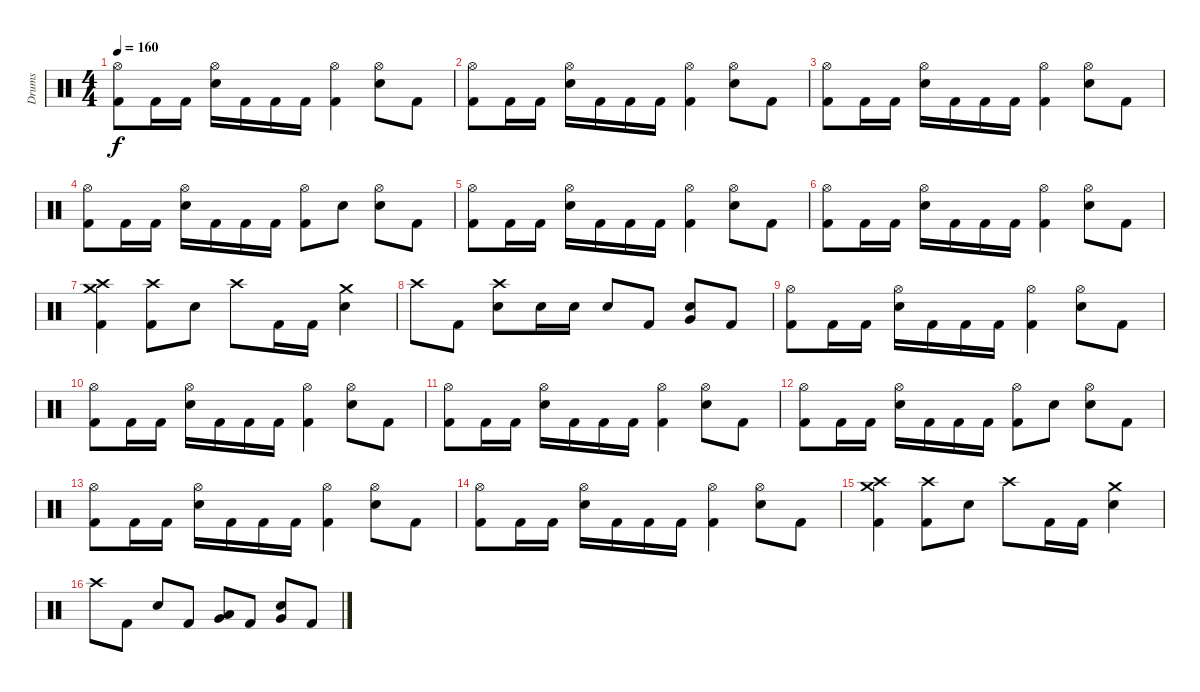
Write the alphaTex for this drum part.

\track ("Drums" "Drums") {instrument percussion}
\staff {score}
\articulation defaults
\ts (4 4)
\tempo 160
\clef neutral
\ks c
("Hi-Hat (open)" "Kick (hit) 2").8{dy f} "Kick (hit) 2".16 "Kick (hit) 2".16 ("Hi-Hat (open)" "Electric Snare (hit)").16 "Kick (hit) 2".16 "Kick (hit) 2".16 "Kick (hit) 2".16 ("Hi-Hat (open)" "Kick (hit) 2").4 ("Hi-Hat (open)" "Electric Snare (hit)").8 "Kick (hit) 2".8 |
("Hi-Hat (open)" "Kick (hit) 2").8 "Kick (hit) 2".16 "Kick (hit) 2".16 ("Hi-Hat (open)" "Electric Snare (hit)").16 "Kick (hit) 2".16 "Kick (hit) 2".16 "Kick (hit) 2".16 ("Hi-Hat (open)" "Kick (hit) 2").4 ("Hi-Hat (open)" "Electric Snare (hit)").8 "Kick (hit) 2".8 |
("Hi-Hat (open)" "Kick (hit) 2").8 "Kick (hit) 2".16 "Kick (hit) 2".16 ("Hi-Hat (open)" "Electric Snare (hit)").16 "Kick (hit) 2".16 "Kick (hit) 2".16 "Kick (hit) 2".16 ("Hi-Hat (open)" "Kick (hit) 2").4 ("Hi-Hat (open)" "Electric Snare (hit)").8 "Kick (hit) 2".8 |
("Hi-Hat (open)" "Kick (hit) 2").8 "Kick (hit) 2".16 "Kick (hit) 2".16 ("Hi-Hat (open)" "Electric Snare (hit)").16 "Kick (hit) 2".16 "Kick (hit) 2".16 "Kick (hit) 2".16 ("Hi-Hat (open)" "Kick (hit) 2").8 "Electric Snare (hit)".8 ("Hi-Hat (open)" "Electric Snare (hit)").8 "Kick (hit) 2".8 |
("Hi-Hat (open)" "Kick (hit) 2").8 "Kick (hit) 2".16 "Kick (hit) 2".16 ("Hi-Hat (open)" "Electric Snare (hit)").16 "Kick (hit) 2".16 "Kick (hit) 2".16 "Kick (hit) 2".16 ("Hi-Hat (open)" "Kick (hit) 2").4 ("Hi-Hat (open)" "Electric Snare (hit)").8 "Kick (hit) 2".8 |
("Hi-Hat (open)" "Kick (hit) 2").8 "Kick (hit) 2".16 "Kick (hit) 2".16 ("Hi-Hat (open)" "Electric Snare (hit)").16 "Kick (hit) 2".16 "Kick (hit) 2".16 "Kick (hit) 2".16 ("Hi-Hat (open)" "Kick (hit) 2").4 ("Hi-Hat (open)" "Electric Snare (hit)").8 "Kick (hit) 2".8 |
("Crash high (hit)" "Crash medium (hit)" "Kick (hit) 2").4 ("Crash high (hit)" "Kick (hit) 2").8 "Electric Snare (hit)".8 "Crash high (hit)".8 "Kick (hit) 2".16 "Kick (hit) 2".16 ("Crash medium (hit)" "Electric Snare (hit)").4 |
"Crash high (hit)".8 "Kick (hit) 2".8 ("Crash high (hit)" "Electric Snare (hit)").8 "Electric Snare (hit)".16 "Electric Snare (hit)".16 "Electric Snare (hit)".8 "Kick (hit) 2".8 ("Very Low Tom (hit)" "Electric Snare (hit)").8 "Kick (hit) 2".8 |
("Hi-Hat (open)" "Kick (hit) 2").8 "Kick (hit) 2".16 "Kick (hit) 2".16 ("Hi-Hat (open)" "Electric Snare (hit)").16 "Kick (hit) 2".16 "Kick (hit) 2".16 "Kick (hit) 2".16 ("Hi-Hat (open)" "Kick (hit) 2").4 ("Hi-Hat (open)" "Electric Snare (hit)").8 "Kick (hit) 2".8 |
("Hi-Hat (open)" "Kick (hit) 2").8 "Kick (hit) 2".16 "Kick (hit) 2".16 ("Hi-Hat (open)" "Electric Snare (hit)").16 "Kick (hit) 2".16 "Kick (hit) 2".16 "Kick (hit) 2".16 ("Hi-Hat (open)" "Kick (hit) 2").4 ("Hi-Hat (open)" "Electric Snare (hit)").8 "Kick (hit) 2".8 |
("Hi-Hat (open)" "Kick (hit) 2").8 "Kick (hit) 2".16 "Kick (hit) 2".16 ("Hi-Hat (open)" "Electric Snare (hit)").16 "Kick (hit) 2".16 "Kick (hit) 2".16 "Kick (hit) 2".16 ("Hi-Hat (open)" "Kick (hit) 2").4 ("Hi-Hat (open)" "Electric Snare (hit)").8 "Kick (hit) 2".8 |
("Hi-Hat (open)" "Kick (hit) 2").8 "Kick (hit) 2".16 "Kick (hit) 2".16 ("Hi-Hat (open)" "Electric Snare (hit)").16 "Kick (hit) 2".16 "Kick (hit) 2".16 "Kick (hit) 2".16 ("Hi-Hat (open)" "Kick (hit) 2").8 "Electric Snare (hit)".8 ("Hi-Hat (open)" "Electric Snare (hit)").8 "Kick (hit) 2".8 |
("Hi-Hat (open)" "Kick (hit) 2").8 "Kick (hit) 2".16 "Kick (hit) 2".16 ("Hi-Hat (open)" "Electric Snare (hit)").16 "Kick (hit) 2".16 "Kick (hit) 2".16 "Kick (hit) 2".16 ("Hi-Hat (open)" "Kick (hit) 2").4 ("Hi-Hat (open)" "Electric Snare (hit)").8 "Kick (hit) 2".8 |
("Hi-Hat (open)" "Kick (hit) 2").8 "Kick (hit) 2".16 "Kick (hit) 2".16 ("Hi-Hat (open)" "Electric Snare (hit)").16 "Kick (hit) 2".16 "Kick (hit) 2".16 "Kick (hit) 2".16 ("Hi-Hat (open)" "Kick (hit) 2").4 ("Hi-Hat (open)" "Electric Snare (hit)").8 "Kick (hit) 2".8 |
("Crash high (hit)" "Crash medium (hit)" "Kick (hit) 2").4 ("Crash high (hit)" "Kick (hit) 2").8 "Electric Snare (hit)".8 "Crash high (hit)".8 "Kick (hit) 2".16 "Kick (hit) 2".16 ("Crash medium (hit)" "Electric Snare (hit)").4 |
"Crash high (hit)".8 "Kick (hit) 2".8 "Electric Snare (hit)".8 "Kick (hit) 2".8 ("Low Floor Tom (hit)" "Very Low Tom (hit)").8 "Kick (hit) 2".8 ("Very Low Tom (hit)" "Electric Snare (hit)").8 "Kick (hit) 2".8
